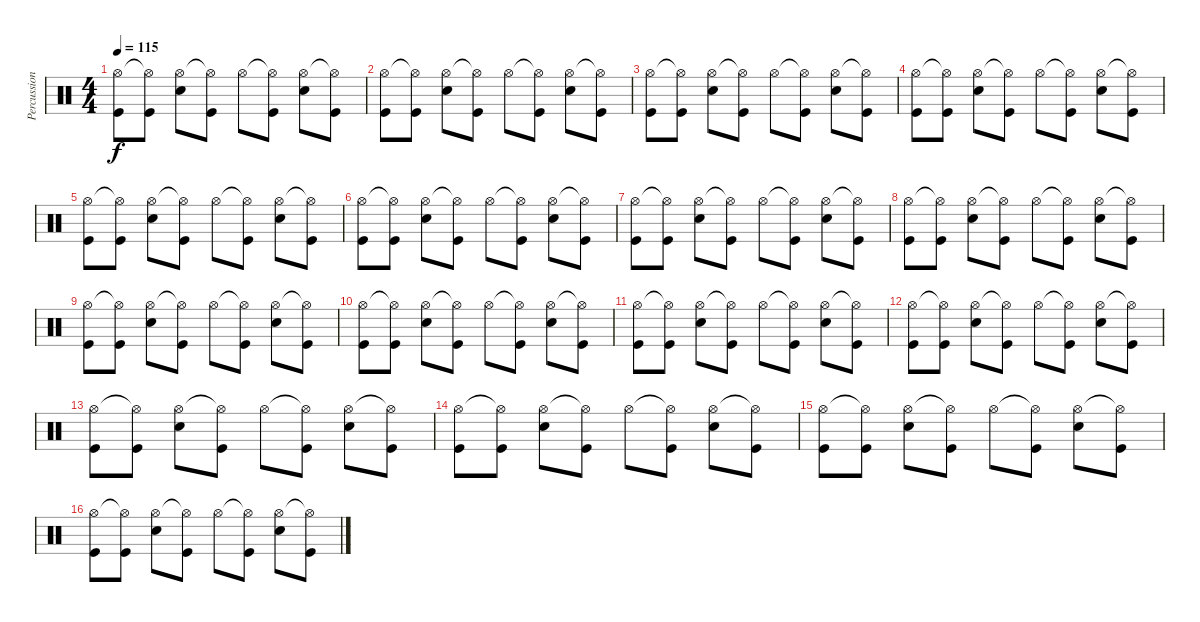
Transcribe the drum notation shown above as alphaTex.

\track ("Percussioni" "Percussion") {instrument percussion}
\staff {score}
\articulation defaults
\ts (4 4)
\tempo 115
\clef neutral
\ks c
("Hi-Hat (open)" "Kick (hit)").8{dy f} ("Hi-Hat (open)"{t} "Kick (hit)").8 ("Hi-Hat (open)" "Snare (hit) 2").8 ("Hi-Hat (open)"{t} "Kick (hit)").8 "Hi-Hat (open)".8 ("Hi-Hat (open)"{t} "Kick (hit)").8 ("Hi-Hat (open)" "Snare (hit) 2").8 ("Hi-Hat (open)"{t} "Kick (hit)").8 |
("Hi-Hat (open)" "Kick (hit)").8 ("Hi-Hat (open)"{t} "Kick (hit)").8 ("Hi-Hat (open)" "Snare (hit) 2").8 ("Hi-Hat (open)"{t} "Kick (hit)").8 "Hi-Hat (open)".8 ("Hi-Hat (open)"{t} "Kick (hit)").8 ("Hi-Hat (open)" "Snare (hit) 2").8 ("Hi-Hat (open)"{t} "Kick (hit)").8 |
("Hi-Hat (open)" "Kick (hit)").8 ("Hi-Hat (open)"{t} "Kick (hit)").8 ("Hi-Hat (open)" "Snare (hit) 2").8 ("Hi-Hat (open)"{t} "Kick (hit)").8 "Hi-Hat (open)".8 ("Hi-Hat (open)"{t} "Kick (hit)").8 ("Hi-Hat (open)" "Snare (hit) 2").8 ("Hi-Hat (open)"{t} "Kick (hit)").8 |
("Hi-Hat (open)" "Kick (hit)").8 ("Hi-Hat (open)"{t} "Kick (hit)").8 ("Hi-Hat (open)" "Snare (hit) 2").8 ("Hi-Hat (open)"{t} "Kick (hit)").8 "Hi-Hat (open)".8 ("Hi-Hat (open)"{t} "Kick (hit)").8 ("Hi-Hat (open)" "Snare (hit) 2").8 ("Hi-Hat (open)"{t} "Kick (hit)").8 |
("Hi-Hat (open)" "Kick (hit)").8 ("Hi-Hat (open)"{t} "Kick (hit)").8 ("Hi-Hat (open)" "Snare (hit) 2").8 ("Hi-Hat (open)"{t} "Kick (hit)").8 "Hi-Hat (open)".8 ("Hi-Hat (open)"{t} "Kick (hit)").8 ("Hi-Hat (open)" "Snare (hit) 2").8 ("Hi-Hat (open)"{t} "Kick (hit)").8 |
("Hi-Hat (open)" "Kick (hit)").8 ("Hi-Hat (open)"{t} "Kick (hit)").8 ("Hi-Hat (open)" "Snare (hit) 2").8 ("Hi-Hat (open)"{t} "Kick (hit)").8 "Hi-Hat (open)".8 ("Hi-Hat (open)"{t} "Kick (hit)").8 ("Hi-Hat (open)" "Snare (hit) 2").8 ("Hi-Hat (open)"{t} "Kick (hit)").8 |
("Hi-Hat (open)" "Kick (hit)").8 ("Hi-Hat (open)"{t} "Kick (hit)").8 ("Hi-Hat (open)" "Snare (hit) 2").8 ("Hi-Hat (open)"{t} "Kick (hit)").8 "Hi-Hat (open)".8 ("Hi-Hat (open)"{t} "Kick (hit)").8 ("Hi-Hat (open)" "Snare (hit) 2").8 ("Hi-Hat (open)"{t} "Kick (hit)").8 |
("Hi-Hat (open)" "Kick (hit)").8 ("Hi-Hat (open)"{t} "Kick (hit)").8 ("Hi-Hat (open)" "Snare (hit) 2").8 ("Hi-Hat (open)"{t} "Kick (hit)").8 "Hi-Hat (open)".8 ("Hi-Hat (open)"{t} "Kick (hit)").8 ("Hi-Hat (open)" "Snare (hit) 2").8 ("Hi-Hat (open)"{t} "Kick (hit)").8 |
("Hi-Hat (open)" "Kick (hit)").8 ("Hi-Hat (open)"{t} "Kick (hit)").8 ("Hi-Hat (open)" "Snare (hit) 2").8 ("Hi-Hat (open)"{t} "Kick (hit)").8 "Hi-Hat (open)".8 ("Hi-Hat (open)"{t} "Kick (hit)").8 ("Hi-Hat (open)" "Snare (hit) 2").8 ("Hi-Hat (open)"{t} "Kick (hit)").8 |
("Hi-Hat (open)" "Kick (hit)").8 ("Hi-Hat (open)"{t} "Kick (hit)").8 ("Hi-Hat (open)" "Snare (hit) 2").8 ("Hi-Hat (open)"{t} "Kick (hit)").8 "Hi-Hat (open)".8 ("Hi-Hat (open)"{t} "Kick (hit)").8 ("Hi-Hat (open)" "Snare (hit) 2").8 ("Hi-Hat (open)"{t} "Kick (hit)").8 |
("Hi-Hat (open)" "Kick (hit)").8 ("Hi-Hat (open)"{t} "Kick (hit)").8 ("Hi-Hat (open)" "Snare (hit) 2").8 ("Hi-Hat (open)"{t} "Kick (hit)").8 "Hi-Hat (open)".8 ("Hi-Hat (open)"{t} "Kick (hit)").8 ("Hi-Hat (open)" "Snare (hit) 2").8 ("Hi-Hat (open)"{t} "Kick (hit)").8 |
("Hi-Hat (open)" "Kick (hit)").8 ("Hi-Hat (open)"{t} "Kick (hit)").8 ("Hi-Hat (open)" "Snare (hit) 2").8 ("Hi-Hat (open)"{t} "Kick (hit)").8 "Hi-Hat (open)".8 ("Hi-Hat (open)"{t} "Kick (hit)").8 ("Hi-Hat (open)" "Snare (hit) 2").8 ("Hi-Hat (open)"{t} "Kick (hit)").8 |
("Hi-Hat (open)" "Kick (hit)").8 ("Hi-Hat (open)"{t} "Kick (hit)").8 ("Hi-Hat (open)" "Snare (hit) 2").8 ("Hi-Hat (open)"{t} "Kick (hit)").8 "Hi-Hat (open)".8 ("Hi-Hat (open)"{t} "Kick (hit)").8 ("Hi-Hat (open)" "Snare (hit) 2").8 ("Hi-Hat (open)"{t} "Kick (hit)").8 |
("Hi-Hat (open)" "Kick (hit)").8 ("Hi-Hat (open)"{t} "Kick (hit)").8 ("Hi-Hat (open)" "Snare (hit) 2").8 ("Hi-Hat (open)"{t} "Kick (hit)").8 "Hi-Hat (open)".8 ("Hi-Hat (open)"{t} "Kick (hit)").8 ("Hi-Hat (open)" "Snare (hit) 2").8 ("Hi-Hat (open)"{t} "Kick (hit)").8 |
("Hi-Hat (open)" "Kick (hit)").8 ("Hi-Hat (open)"{t} "Kick (hit)").8 ("Hi-Hat (open)" "Snare (hit) 2").8 ("Hi-Hat (open)"{t} "Kick (hit)").8 "Hi-Hat (open)".8 ("Hi-Hat (open)"{t} "Kick (hit)").8 ("Hi-Hat (open)" "Snare (hit) 2").8 ("Hi-Hat (open)"{t} "Kick (hit)").8 |
("Hi-Hat (open)" "Kick (hit)").8 ("Hi-Hat (open)"{t} "Kick (hit)").8 ("Hi-Hat (open)" "Snare (hit) 2").8 ("Hi-Hat (open)"{t} "Kick (hit)").8 "Hi-Hat (open)".8 ("Hi-Hat (open)"{t} "Kick (hit)").8 ("Hi-Hat (open)" "Snare (hit) 2").8 ("Hi-Hat (open)"{t} "Kick (hit)").8
